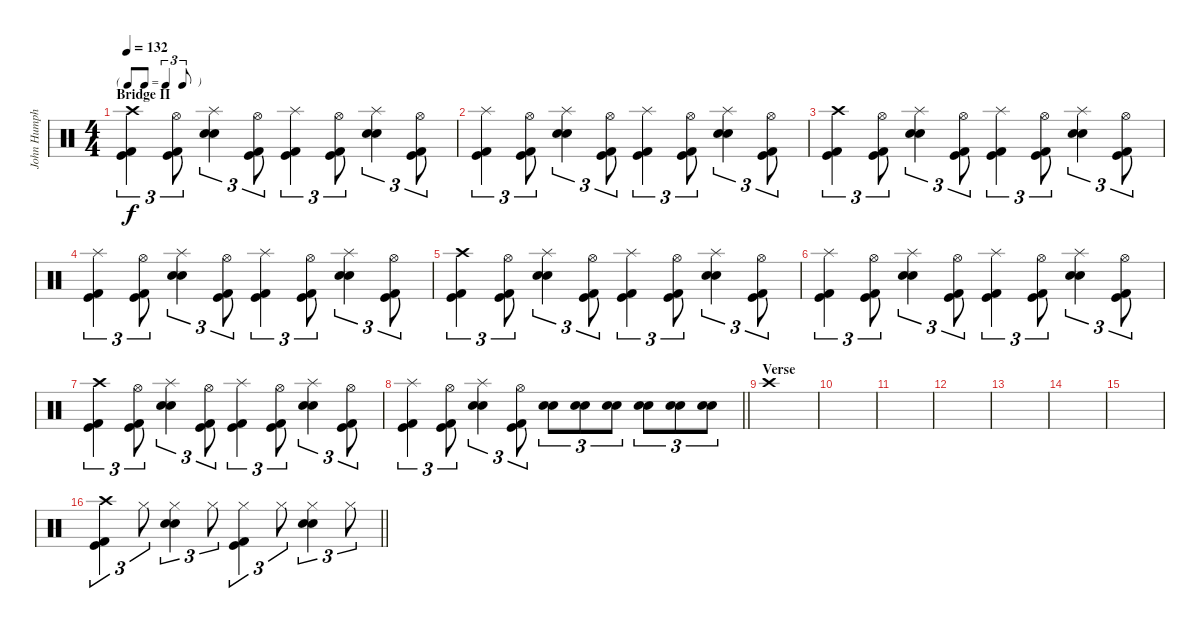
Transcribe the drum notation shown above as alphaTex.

\track ("John Humphrey" "John Humph") {instrument percussion}
\staff {score}
\articulation defaults
\ts (4 4)
\tf triplet8th
\section ("" "Bridge II")
\tempo 132
\clef neutral
\ks c
("Crash high (hit)" "Kick (hit) 2" "Kick (hit)").4{tu (3 2) dy f} ("Hi-Hat (open)" "Kick (hit) 2" "Kick (hit)").8{tu (3 2)} ("Splash (hit)" "Electric Snare (hit)" "Snare (hit) 2").4{tu (3 2)} ("Hi-Hat (open)" "Kick (hit) 2" "Kick (hit)").8{tu (3 2)} ("Splash (hit)" "Kick (hit) 2" "Kick (hit)").4{tu (3 2)} ("Hi-Hat (open)" "Kick (hit) 2" "Kick (hit)").8{tu (3 2)} ("Splash (hit)" "Electric Snare (hit)" "Snare (hit) 2").4{tu (3 2)} ("Hi-Hat (open)" "Kick (hit) 2" "Kick (hit)").8{tu (3 2)} |
("Splash (hit)" "Kick (hit) 2" "Kick (hit)").4{tu (3 2)} ("Hi-Hat (open)" "Kick (hit) 2" "Kick (hit)").8{tu (3 2)} ("Splash (hit)" "Electric Snare (hit)" "Snare (hit) 2").4{tu (3 2)} ("Hi-Hat (open)" "Kick (hit) 2" "Kick (hit)").8{tu (3 2)} ("Splash (hit)" "Kick (hit) 2" "Kick (hit)").4{tu (3 2)} ("Hi-Hat (open)" "Kick (hit) 2" "Kick (hit)").8{tu (3 2)} ("Splash (hit)" "Electric Snare (hit)" "Snare (hit) 2").4{tu (3 2)} ("Hi-Hat (open)" "Kick (hit) 2" "Kick (hit)").8{tu (3 2)} |
("Crash high (hit)" "Kick (hit) 2" "Kick (hit)").4{tu (3 2)} ("Hi-Hat (open)" "Kick (hit) 2" "Kick (hit)").8{tu (3 2)} ("Splash (hit)" "Electric Snare (hit)" "Snare (hit) 2").4{tu (3 2)} ("Hi-Hat (open)" "Kick (hit) 2" "Kick (hit)").8{tu (3 2)} ("Splash (hit)" "Kick (hit) 2" "Kick (hit)").4{tu (3 2)} ("Hi-Hat (open)" "Kick (hit) 2" "Kick (hit)").8{tu (3 2)} ("Splash (hit)" "Electric Snare (hit)" "Snare (hit) 2").4{tu (3 2)} ("Hi-Hat (open)" "Kick (hit) 2" "Kick (hit)").8{tu (3 2)} |
("Splash (hit)" "Kick (hit) 2" "Kick (hit)").4{tu (3 2)} ("Hi-Hat (open)" "Kick (hit) 2" "Kick (hit)").8{tu (3 2)} ("Splash (hit)" "Electric Snare (hit)" "Snare (hit) 2").4{tu (3 2)} ("Hi-Hat (open)" "Kick (hit) 2" "Kick (hit)").8{tu (3 2)} ("Splash (hit)" "Kick (hit) 2" "Kick (hit)").4{tu (3 2)} ("Hi-Hat (open)" "Kick (hit) 2" "Kick (hit)").8{tu (3 2)} ("Splash (hit)" "Electric Snare (hit)" "Snare (hit) 2").4{tu (3 2)} ("Hi-Hat (open)" "Kick (hit) 2" "Kick (hit)").8{tu (3 2)} |
("Crash high (hit)" "Kick (hit) 2" "Kick (hit)").4{tu (3 2)} ("Hi-Hat (open)" "Kick (hit) 2" "Kick (hit)").8{tu (3 2)} ("Splash (hit)" "Electric Snare (hit)" "Snare (hit) 2").4{tu (3 2)} ("Hi-Hat (open)" "Kick (hit) 2" "Kick (hit)").8{tu (3 2)} ("Splash (hit)" "Kick (hit) 2" "Kick (hit)").4{tu (3 2)} ("Hi-Hat (open)" "Kick (hit) 2" "Kick (hit)").8{tu (3 2)} ("Splash (hit)" "Electric Snare (hit)" "Snare (hit) 2").4{tu (3 2)} ("Hi-Hat (open)" "Kick (hit) 2" "Kick (hit)").8{tu (3 2)} |
("Splash (hit)" "Kick (hit) 2" "Kick (hit)").4{tu (3 2)} ("Hi-Hat (open)" "Kick (hit) 2" "Kick (hit)").8{tu (3 2)} ("Splash (hit)" "Electric Snare (hit)" "Snare (hit) 2").4{tu (3 2)} ("Hi-Hat (open)" "Kick (hit) 2" "Kick (hit)").8{tu (3 2)} ("Splash (hit)" "Kick (hit) 2" "Kick (hit)").4{tu (3 2)} ("Hi-Hat (open)" "Kick (hit) 2" "Kick (hit)").8{tu (3 2)} ("Splash (hit)" "Electric Snare (hit)" "Snare (hit) 2").4{tu (3 2)} ("Hi-Hat (open)" "Kick (hit) 2" "Kick (hit)").8{tu (3 2)} |
("Crash high (hit)" "Kick (hit) 2" "Kick (hit)").4{tu (3 2)} ("Hi-Hat (open)" "Kick (hit) 2" "Kick (hit)").8{tu (3 2)} ("Splash (hit)" "Electric Snare (hit)" "Snare (hit) 2").4{tu (3 2)} ("Hi-Hat (open)" "Kick (hit) 2" "Kick (hit)").8{tu (3 2)} ("Splash (hit)" "Kick (hit) 2" "Kick (hit)").4{tu (3 2)} ("Hi-Hat (open)" "Kick (hit) 2" "Kick (hit)").8{tu (3 2)} ("Splash (hit)" "Electric Snare (hit)" "Snare (hit) 2").4{tu (3 2)} ("Hi-Hat (open)" "Kick (hit) 2" "Kick (hit)").8{tu (3 2)} |
\barLineRight lightlight
("Splash (hit)" "Kick (hit) 2" "Kick (hit)").4{tu (3 2)} ("Hi-Hat (open)" "Kick (hit) 2" "Kick (hit)").8{tu (3 2)} ("Splash (hit)" "Electric Snare (hit)" "Snare (hit) 2").4{tu (3 2)} ("Hi-Hat (open)" "Kick (hit) 2" "Kick (hit)").8{tu (3 2)} ("Electric Snare (hit)" "Snare (hit) 2").8{tu (3 2)} ("Electric Snare (hit)" "Snare (hit) 2").8{tu (3 2)} ("Electric Snare (hit)" "Snare (hit) 2").8{tu (3 2)} ("Electric Snare (hit)" "Snare (hit) 2").8{tu (3 2)} ("Electric Snare (hit)" "Snare (hit) 2").8{tu (3 2)} ("Electric Snare (hit)" "Snare (hit) 2").8{tu (3 2)} |
\section ("" "Verse")
"Crash high (hit)".1 |
|
|
|
|
|
|
\barLineRight lightlight
("Crash high (hit)" "Kick (hit) 2" "Kick (hit)").4{tu (3 2)} "Hi-Hat (closed)".8{tu (3 2)} ("Hi-Hat (closed)" "Electric Snare (hit)" "Snare (hit) 2").4{tu (3 2)} "Hi-Hat (closed)".8{tu (3 2)} ("Hi-Hat (closed)" "Kick (hit) 2" "Kick (hit)").4{tu (3 2)} "Hi-Hat (closed)".8{tu (3 2)} ("Hi-Hat (closed)" "Electric Snare (hit)" "Snare (hit) 2").4{tu (3 2)} "Hi-Hat (closed)".8{tu (3 2)}
